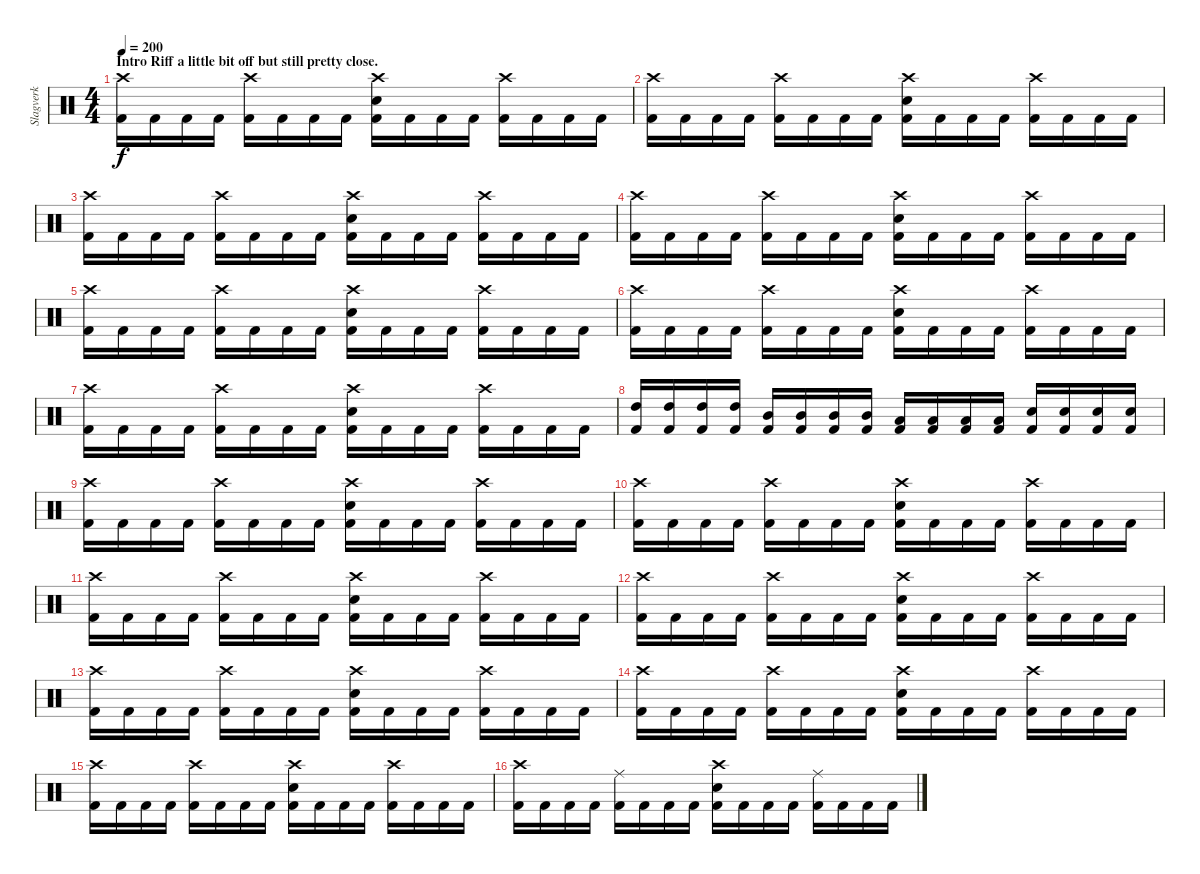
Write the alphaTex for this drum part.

\track ("Slagverk" "Slagverk") {instrument percussion}
\staff {score}
\articulation defaults
\ts (4 4)
\section ("" "Intro Riff a little bit off but still pretty close.")
\tempo 200
\clef neutral
\ks c
("Crash high (hit)" "Kick (hit) 2").16{dy f} "Kick (hit) 2".16 "Kick (hit) 2".16 "Kick (hit) 2".16 ("Crash high (hit)" "Kick (hit) 2").16 "Kick (hit) 2".16 "Kick (hit) 2".16 "Kick (hit) 2".16 ("Crash high (hit)" "Kick (hit) 2" "Snare (hit) 2").16 "Kick (hit) 2".16 "Kick (hit) 2".16 "Kick (hit) 2".16 ("Crash high (hit)" "Kick (hit) 2").16 "Kick (hit) 2".16 "Kick (hit) 2".16 "Kick (hit) 2".16 |
("Crash high (hit)" "Kick (hit) 2").16 "Kick (hit) 2".16 "Kick (hit) 2".16 "Kick (hit) 2".16 ("Crash high (hit)" "Kick (hit) 2").16 "Kick (hit) 2".16 "Kick (hit) 2".16 "Kick (hit) 2".16 ("Crash high (hit)" "Kick (hit) 2" "Snare (hit) 2").16 "Kick (hit) 2".16 "Kick (hit) 2".16 "Kick (hit) 2".16 ("Crash high (hit)" "Kick (hit) 2").16 "Kick (hit) 2".16 "Kick (hit) 2".16 "Kick (hit) 2".16 |
("Crash high (hit)" "Kick (hit) 2").16 "Kick (hit) 2".16 "Kick (hit) 2".16 "Kick (hit) 2".16 ("Crash high (hit)" "Kick (hit) 2").16 "Kick (hit) 2".16 "Kick (hit) 2".16 "Kick (hit) 2".16 ("Crash high (hit)" "Kick (hit) 2" "Snare (hit) 2").16 "Kick (hit) 2".16 "Kick (hit) 2".16 "Kick (hit) 2".16 ("Crash high (hit)" "Kick (hit) 2").16 "Kick (hit) 2".16 "Kick (hit) 2".16 "Kick (hit) 2".16 |
("Crash high (hit)" "Kick (hit) 2").16 "Kick (hit) 2".16 "Kick (hit) 2".16 "Kick (hit) 2".16 ("Crash high (hit)" "Kick (hit) 2").16 "Kick (hit) 2".16 "Kick (hit) 2".16 "Kick (hit) 2".16 ("Crash high (hit)" "Kick (hit) 2" "Snare (hit) 2").16 "Kick (hit) 2".16 "Kick (hit) 2".16 "Kick (hit) 2".16 ("Crash high (hit)" "Kick (hit) 2").16 "Kick (hit) 2".16 "Kick (hit) 2".16 "Kick (hit) 2".16 |
("Crash high (hit)" "Kick (hit) 2").16 "Kick (hit) 2".16 "Kick (hit) 2".16 "Kick (hit) 2".16 ("Crash high (hit)" "Kick (hit) 2").16 "Kick (hit) 2".16 "Kick (hit) 2".16 "Kick (hit) 2".16 ("Crash high (hit)" "Kick (hit) 2" "Snare (hit) 2").16 "Kick (hit) 2".16 "Kick (hit) 2".16 "Kick (hit) 2".16 ("Crash high (hit)" "Kick (hit) 2").16 "Kick (hit) 2".16 "Kick (hit) 2".16 "Kick (hit) 2".16 |
("Crash high (hit)" "Kick (hit) 2").16 "Kick (hit) 2".16 "Kick (hit) 2".16 "Kick (hit) 2".16 ("Crash high (hit)" "Kick (hit) 2").16 "Kick (hit) 2".16 "Kick (hit) 2".16 "Kick (hit) 2".16 ("Crash high (hit)" "Kick (hit) 2" "Snare (hit) 2").16 "Kick (hit) 2".16 "Kick (hit) 2".16 "Kick (hit) 2".16 ("Crash high (hit)" "Kick (hit) 2").16 "Kick (hit) 2".16 "Kick (hit) 2".16 "Kick (hit) 2".16 |
("Crash high (hit)" "Kick (hit) 2").16 "Kick (hit) 2".16 "Kick (hit) 2".16 "Kick (hit) 2".16 ("Crash high (hit)" "Kick (hit) 2").16 "Kick (hit) 2".16 "Kick (hit) 2".16 "Kick (hit) 2".16 ("Crash high (hit)" "Kick (hit) 2" "Snare (hit) 2").16 "Kick (hit) 2".16 "Kick (hit) 2".16 "Kick (hit) 2".16 ("Crash high (hit)" "Kick (hit) 2").16 "Kick (hit) 2".16 "Kick (hit) 2".16 "Kick (hit) 2".16 |
("Kick (hit) 2" "High Tom (hit)").16 ("Kick (hit) 2" "High Tom (hit)").16 ("Kick (hit) 2" "High Tom (hit)").16 ("Kick (hit) 2" "High Tom (hit)").16 ("Kick (hit) 2" "Mid Tom (hit)").16 ("Kick (hit) 2" "Mid Tom (hit)").16 ("Kick (hit) 2" "Mid Tom (hit)").16 ("Kick (hit) 2" "Mid Tom (hit)").16 ("Kick (hit) 2" "Low Tom (hit)").16 ("Kick (hit) 2" "Low Tom (hit)").16 ("Kick (hit) 2" "Low Tom (hit)").16 ("Kick (hit) 2" "Low Tom (hit)").16 ("Kick (hit) 2" "Snare (hit) 2").16 ("Kick (hit) 2" "Snare (hit) 2").16 ("Kick (hit) 2" "Snare (hit) 2").16 ("Kick (hit) 2" "Snare (hit) 2").16 |
("Crash high (hit)" "Kick (hit) 2").16 "Kick (hit) 2".16 "Kick (hit) 2".16 "Kick (hit) 2".16 ("Crash high (hit)" "Kick (hit) 2").16 "Kick (hit) 2".16 "Kick (hit) 2".16 "Kick (hit) 2".16 ("Crash high (hit)" "Kick (hit) 2" "Snare (hit) 2").16 "Kick (hit) 2".16 "Kick (hit) 2".16 "Kick (hit) 2".16 ("Crash high (hit)" "Kick (hit) 2").16 "Kick (hit) 2".16 "Kick (hit) 2".16 "Kick (hit) 2".16 |
("Crash high (hit)" "Kick (hit) 2").16 "Kick (hit) 2".16 "Kick (hit) 2".16 "Kick (hit) 2".16 ("Crash high (hit)" "Kick (hit) 2").16 "Kick (hit) 2".16 "Kick (hit) 2".16 "Kick (hit) 2".16 ("Crash high (hit)" "Kick (hit) 2" "Snare (hit) 2").16 "Kick (hit) 2".16 "Kick (hit) 2".16 "Kick (hit) 2".16 ("Crash high (hit)" "Kick (hit) 2").16 "Kick (hit) 2".16 "Kick (hit) 2".16 "Kick (hit) 2".16 |
("Crash high (hit)" "Kick (hit) 2").16 "Kick (hit) 2".16 "Kick (hit) 2".16 "Kick (hit) 2".16 ("Crash high (hit)" "Kick (hit) 2").16 "Kick (hit) 2".16 "Kick (hit) 2".16 "Kick (hit) 2".16 ("Crash high (hit)" "Kick (hit) 2" "Snare (hit) 2").16 "Kick (hit) 2".16 "Kick (hit) 2".16 "Kick (hit) 2".16 ("Crash high (hit)" "Kick (hit) 2").16 "Kick (hit) 2".16 "Kick (hit) 2".16 "Kick (hit) 2".16 |
("Crash high (hit)" "Kick (hit) 2").16 "Kick (hit) 2".16 "Kick (hit) 2".16 "Kick (hit) 2".16 ("Crash high (hit)" "Kick (hit) 2").16 "Kick (hit) 2".16 "Kick (hit) 2".16 "Kick (hit) 2".16 ("Crash high (hit)" "Kick (hit) 2" "Snare (hit) 2").16 "Kick (hit) 2".16 "Kick (hit) 2".16 "Kick (hit) 2".16 ("Crash high (hit)" "Kick (hit) 2").16 "Kick (hit) 2".16 "Kick (hit) 2".16 "Kick (hit) 2".16 |
("Crash high (hit)" "Kick (hit) 2").16 "Kick (hit) 2".16 "Kick (hit) 2".16 "Kick (hit) 2".16 ("Crash high (hit)" "Kick (hit) 2").16 "Kick (hit) 2".16 "Kick (hit) 2".16 "Kick (hit) 2".16 ("Crash high (hit)" "Kick (hit) 2" "Snare (hit) 2").16 "Kick (hit) 2".16 "Kick (hit) 2".16 "Kick (hit) 2".16 ("Crash high (hit)" "Kick (hit) 2").16 "Kick (hit) 2".16 "Kick (hit) 2".16 "Kick (hit) 2".16 |
("Crash high (hit)" "Kick (hit) 2").16 "Kick (hit) 2".16 "Kick (hit) 2".16 "Kick (hit) 2".16 ("Crash high (hit)" "Kick (hit) 2").16 "Kick (hit) 2".16 "Kick (hit) 2".16 "Kick (hit) 2".16 ("Crash high (hit)" "Kick (hit) 2" "Snare (hit) 2").16 "Kick (hit) 2".16 "Kick (hit) 2".16 "Kick (hit) 2".16 ("Crash high (hit)" "Kick (hit) 2").16 "Kick (hit) 2".16 "Kick (hit) 2".16 "Kick (hit) 2".16 |
("Crash high (hit)" "Kick (hit) 2").16 "Kick (hit) 2".16 "Kick (hit) 2".16 "Kick (hit) 2".16 ("Crash high (hit)" "Kick (hit) 2").16 "Kick (hit) 2".16 "Kick (hit) 2".16 "Kick (hit) 2".16 ("Crash high (hit)" "Kick (hit) 2" "Snare (hit) 2").16 "Kick (hit) 2".16 "Kick (hit) 2".16 "Kick (hit) 2".16 ("Crash high (hit)" "Kick (hit) 2").16 "Kick (hit) 2".16 "Kick (hit) 2".16 "Kick (hit) 2".16 |
("Crash high (hit)" "Kick (hit) 2").16 "Kick (hit) 2".16 "Kick (hit) 2".16 "Kick (hit) 2".16 ("Ride (middle)" "Kick (hit) 2").16 "Kick (hit) 2".16 "Kick (hit) 2".16 "Kick (hit) 2".16 ("Crash high (hit)" "Kick (hit) 2" "Snare (hit) 2").16 "Kick (hit) 2".16 "Kick (hit) 2".16 "Kick (hit) 2".16 ("Ride (middle)" "Kick (hit) 2").16 "Kick (hit) 2".16 "Kick (hit) 2".16 "Kick (hit) 2".16
